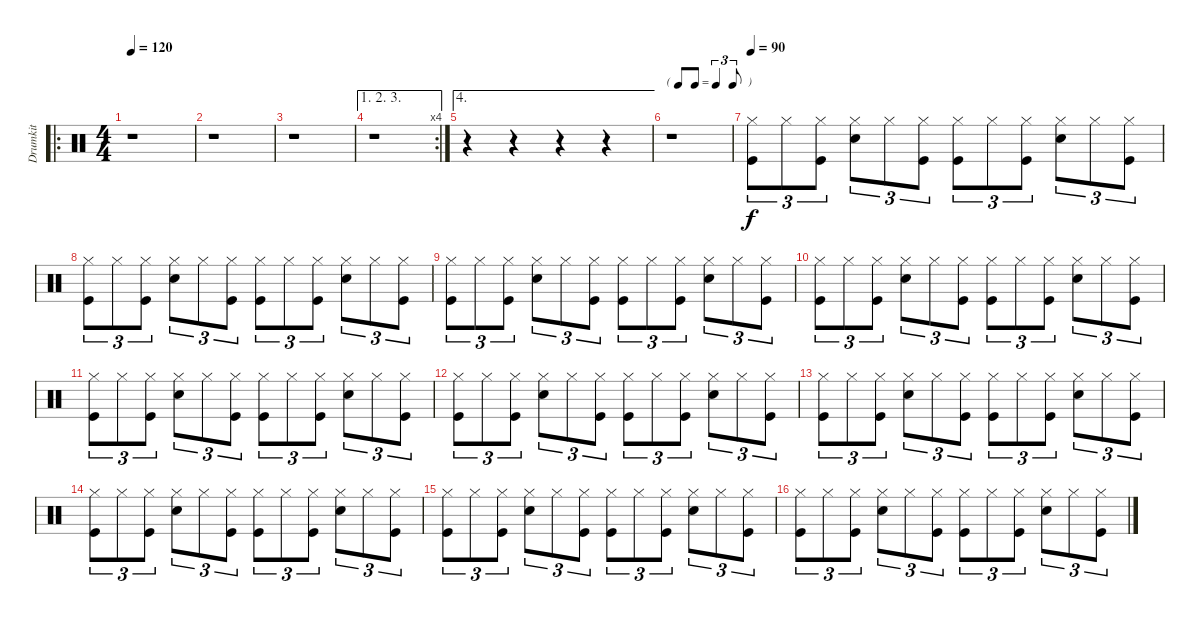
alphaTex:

\track ("Drumkit" "Drumkit") {instrument percussion}
\staff {score}
\articulation defaults
\ro
\ts (4 4)
\tempo 120
\clef neutral
\ks c
r.1{dy f} |
r.1 |
r.1 |
\ae (1 2 3)
\rc 4
r.1 |
\ae 4
r.4 r.4 r.4 r.4 |
\tf triplet8th
r.1 |
\tempo 90
("Hi-Hat (closed)" "Kick (hit)").8{tu (3 2)} "Hi-Hat (closed)".8{tu (3 2)} ("Hi-Hat (closed)" "Kick (hit)").8{tu (3 2)} ("Hi-Hat (closed)" "Snare (hit) 2").8{tu (3 2)} "Hi-Hat (closed)".8{tu (3 2)} ("Hi-Hat (closed)" "Kick (hit)").8{tu (3 2)} ("Hi-Hat (closed)" "Kick (hit)").8{tu (3 2)} "Hi-Hat (closed)".8{tu (3 2)} ("Hi-Hat (closed)" "Kick (hit)").8{tu (3 2)} ("Hi-Hat (closed)" "Snare (hit) 2").8{tu (3 2)} "Hi-Hat (closed)".8{tu (3 2)} ("Hi-Hat (closed)" "Kick (hit)").8{tu (3 2)} |
("Hi-Hat (closed)" "Kick (hit)").8{tu (3 2)} "Hi-Hat (closed)".8{tu (3 2)} ("Hi-Hat (closed)" "Kick (hit)").8{tu (3 2)} ("Hi-Hat (closed)" "Snare (hit) 2").8{tu (3 2)} "Hi-Hat (closed)".8{tu (3 2)} ("Hi-Hat (closed)" "Kick (hit)").8{tu (3 2)} ("Hi-Hat (closed)" "Kick (hit)").8{tu (3 2)} "Hi-Hat (closed)".8{tu (3 2)} ("Hi-Hat (closed)" "Kick (hit)").8{tu (3 2)} ("Hi-Hat (closed)" "Snare (hit) 2").8{tu (3 2)} "Hi-Hat (closed)".8{tu (3 2)} ("Hi-Hat (closed)" "Kick (hit)").8{tu (3 2)} |
("Hi-Hat (closed)" "Kick (hit)").8{tu (3 2)} "Hi-Hat (closed)".8{tu (3 2)} ("Hi-Hat (closed)" "Kick (hit)").8{tu (3 2)} ("Hi-Hat (closed)" "Snare (hit) 2").8{tu (3 2)} "Hi-Hat (closed)".8{tu (3 2)} ("Hi-Hat (closed)" "Kick (hit)").8{tu (3 2)} ("Hi-Hat (closed)" "Kick (hit)").8{tu (3 2)} "Hi-Hat (closed)".8{tu (3 2)} ("Hi-Hat (closed)" "Kick (hit)").8{tu (3 2)} ("Hi-Hat (closed)" "Snare (hit) 2").8{tu (3 2)} "Hi-Hat (closed)".8{tu (3 2)} ("Hi-Hat (closed)" "Kick (hit)").8{tu (3 2)} |
("Hi-Hat (closed)" "Kick (hit)").8{tu (3 2)} "Hi-Hat (closed)".8{tu (3 2)} ("Hi-Hat (closed)" "Kick (hit)").8{tu (3 2)} ("Hi-Hat (closed)" "Snare (hit) 2").8{tu (3 2)} "Hi-Hat (closed)".8{tu (3 2)} ("Hi-Hat (closed)" "Kick (hit)").8{tu (3 2)} ("Hi-Hat (closed)" "Kick (hit)").8{tu (3 2)} "Hi-Hat (closed)".8{tu (3 2)} ("Hi-Hat (closed)" "Kick (hit)").8{tu (3 2)} ("Hi-Hat (closed)" "Snare (hit) 2").8{tu (3 2)} "Hi-Hat (closed)".8{tu (3 2)} ("Hi-Hat (closed)" "Kick (hit)").8{tu (3 2)} |
("Hi-Hat (closed)" "Kick (hit)").8{tu (3 2)} "Hi-Hat (closed)".8{tu (3 2)} ("Hi-Hat (closed)" "Kick (hit)").8{tu (3 2)} ("Hi-Hat (closed)" "Snare (hit) 2").8{tu (3 2)} "Hi-Hat (closed)".8{tu (3 2)} ("Hi-Hat (closed)" "Kick (hit)").8{tu (3 2)} ("Hi-Hat (closed)" "Kick (hit)").8{tu (3 2)} "Hi-Hat (closed)".8{tu (3 2)} ("Hi-Hat (closed)" "Kick (hit)").8{tu (3 2)} ("Hi-Hat (closed)" "Snare (hit) 2").8{tu (3 2)} "Hi-Hat (closed)".8{tu (3 2)} ("Hi-Hat (closed)" "Kick (hit)").8{tu (3 2)} |
("Hi-Hat (closed)" "Kick (hit)").8{tu (3 2)} "Hi-Hat (closed)".8{tu (3 2)} ("Hi-Hat (closed)" "Kick (hit)").8{tu (3 2)} ("Hi-Hat (closed)" "Snare (hit) 2").8{tu (3 2)} "Hi-Hat (closed)".8{tu (3 2)} ("Hi-Hat (closed)" "Kick (hit)").8{tu (3 2)} ("Hi-Hat (closed)" "Kick (hit)").8{tu (3 2)} "Hi-Hat (closed)".8{tu (3 2)} ("Hi-Hat (closed)" "Kick (hit)").8{tu (3 2)} ("Hi-Hat (closed)" "Snare (hit) 2").8{tu (3 2)} "Hi-Hat (closed)".8{tu (3 2)} ("Hi-Hat (closed)" "Kick (hit)").8{tu (3 2)} |
("Hi-Hat (closed)" "Kick (hit)").8{tu (3 2)} "Hi-Hat (closed)".8{tu (3 2)} ("Hi-Hat (closed)" "Kick (hit)").8{tu (3 2)} ("Hi-Hat (closed)" "Snare (hit) 2").8{tu (3 2)} "Hi-Hat (closed)".8{tu (3 2)} ("Hi-Hat (closed)" "Kick (hit)").8{tu (3 2)} ("Hi-Hat (closed)" "Kick (hit)").8{tu (3 2)} "Hi-Hat (closed)".8{tu (3 2)} ("Hi-Hat (closed)" "Kick (hit)").8{tu (3 2)} ("Hi-Hat (closed)" "Snare (hit) 2").8{tu (3 2)} "Hi-Hat (closed)".8{tu (3 2)} ("Hi-Hat (closed)" "Kick (hit)").8{tu (3 2)} |
("Hi-Hat (closed)" "Kick (hit)").8{tu (3 2)} "Hi-Hat (closed)".8{tu (3 2)} ("Hi-Hat (closed)" "Kick (hit)").8{tu (3 2)} ("Hi-Hat (closed)" "Snare (hit) 2").8{tu (3 2)} "Hi-Hat (closed)".8{tu (3 2)} ("Hi-Hat (closed)" "Kick (hit)").8{tu (3 2)} ("Hi-Hat (closed)" "Kick (hit)").8{tu (3 2)} "Hi-Hat (closed)".8{tu (3 2)} ("Hi-Hat (closed)" "Kick (hit)").8{tu (3 2)} ("Hi-Hat (closed)" "Snare (hit) 2").8{tu (3 2)} "Hi-Hat (closed)".8{tu (3 2)} ("Hi-Hat (closed)" "Kick (hit)").8{tu (3 2)} |
("Hi-Hat (closed)" "Kick (hit)").8{tu (3 2)} "Hi-Hat (closed)".8{tu (3 2)} ("Hi-Hat (closed)" "Kick (hit)").8{tu (3 2)} ("Hi-Hat (closed)" "Snare (hit) 2").8{tu (3 2)} "Hi-Hat (closed)".8{tu (3 2)} ("Hi-Hat (closed)" "Kick (hit)").8{tu (3 2)} ("Hi-Hat (closed)" "Kick (hit)").8{tu (3 2)} "Hi-Hat (closed)".8{tu (3 2)} ("Hi-Hat (closed)" "Kick (hit)").8{tu (3 2)} ("Hi-Hat (closed)" "Snare (hit) 2").8{tu (3 2)} "Hi-Hat (closed)".8{tu (3 2)} ("Hi-Hat (closed)" "Kick (hit)").8{tu (3 2)} |
("Hi-Hat (closed)" "Kick (hit)").8{tu (3 2)} "Hi-Hat (closed)".8{tu (3 2)} ("Hi-Hat (closed)" "Kick (hit)").8{tu (3 2)} ("Hi-Hat (closed)" "Snare (hit) 2").8{tu (3 2)} "Hi-Hat (closed)".8{tu (3 2)} ("Hi-Hat (closed)" "Kick (hit)").8{tu (3 2)} ("Hi-Hat (closed)" "Kick (hit)").8{tu (3 2)} "Hi-Hat (closed)".8{tu (3 2)} ("Hi-Hat (closed)" "Kick (hit)").8{tu (3 2)} ("Hi-Hat (closed)" "Snare (hit) 2").8{tu (3 2)} "Hi-Hat (closed)".8{tu (3 2)} ("Hi-Hat (closed)" "Kick (hit)").8{tu (3 2)}
